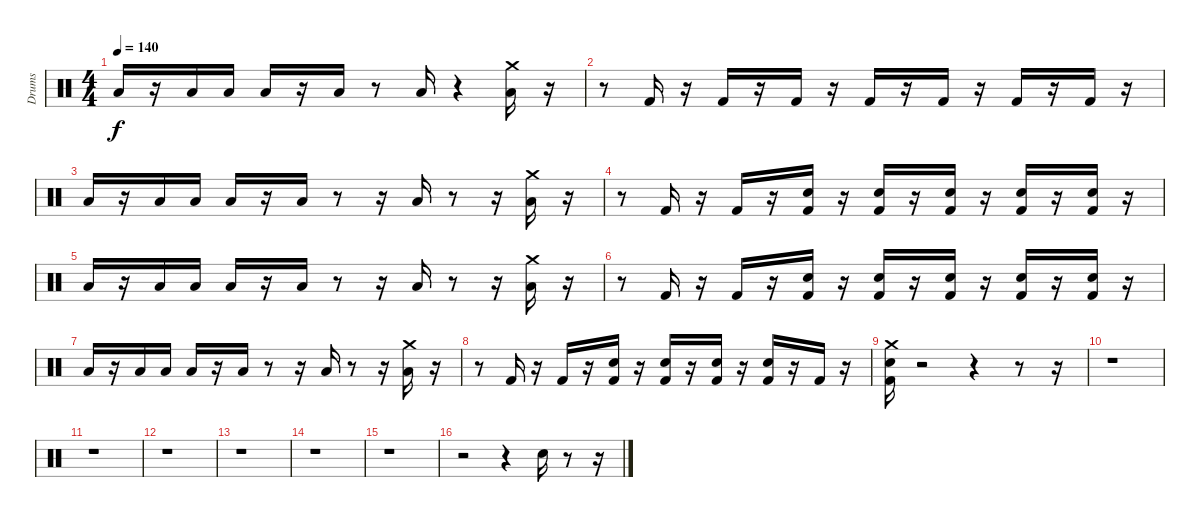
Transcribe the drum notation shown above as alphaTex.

\track ("Drums               " "Drums     ") {instrument percussion}
\staff {score}
\articulation defaults
\ts (4 4)
\tempo 140
\clef neutral
\ks c "Low Floor Tom (hit)".16{dy f}
r.16 "Low Floor Tom (hit)".16 "Low Floor Tom (hit)".16 "Low Floor Tom (hit)".16 r.16 "Low Floor Tom (hit)".16 r.8 "Low Floor Tom (hit)".16 r.4 ("Low Floor Tom (hit)" "Crash medium (hit)").16 r.16 |
r.8 "Kick (hit) 2".16 r.16 "Kick (hit) 2".16 r.16 "Kick (hit) 2".16 r.16 "Kick (hit) 2".16 r.16 "Kick (hit) 2".16 r.16 "Kick (hit) 2".16 r.16 "Kick (hit) 2".16 r.16 |
"Low Floor Tom (hit)".16 r.16 "Low Floor Tom (hit)".16 "Low Floor Tom (hit)".16 "Low Floor Tom (hit)".16 r.16 "Low Floor Tom (hit)".16 r.8 r.16 "Low Floor Tom (hit)".16 r.8 r.16 ("Low Floor Tom (hit)" "Crash medium (hit)").16 r.16 |
r.8 "Kick (hit) 2".16 r.16 "Kick (hit) 2".16 r.16 ("Kick (hit) 2" "Electric Snare (hit)").16 r.16 ("Kick (hit) 2" "Electric Snare (hit)").16 r.16 ("Kick (hit) 2" "Electric Snare (hit)").16 r.16 ("Kick (hit) 2" "Electric Snare (hit)").16 r.16 ("Kick (hit) 2" "Electric Snare (hit)").16 r.16 |
"Low Floor Tom (hit)".16 r.16 "Low Floor Tom (hit)".16 "Low Floor Tom (hit)".16 "Low Floor Tom (hit)".16 r.16 "Low Floor Tom (hit)".16 r.8 r.16 "Low Floor Tom (hit)".16 r.8 r.16 ("Low Floor Tom (hit)" "Crash medium (hit)").16 r.16 |
r.8 "Kick (hit) 2".16 r.16 "Kick (hit) 2".16 r.16 ("Kick (hit) 2" "Electric Snare (hit)").16 r.16 ("Kick (hit) 2" "Electric Snare (hit)").16 r.16 ("Kick (hit) 2" "Electric Snare (hit)").16 r.16 ("Kick (hit) 2" "Electric Snare (hit)").16 r.16 ("Kick (hit) 2" "Electric Snare (hit)").16 r.16 |
"Low Floor Tom (hit)".16 r.16 "Low Floor Tom (hit)".16 "Low Floor Tom (hit)".16 "Low Floor Tom (hit)".16 r.16 "Low Floor Tom (hit)".16 r.8 r.16 "Low Floor Tom (hit)".16 r.8 r.16 ("Low Floor Tom (hit)" "Crash medium (hit)").16 r.16 |
r.8 "Kick (hit) 2".16 r.16 "Kick (hit) 2".16 r.16 ("Kick (hit) 2" "Electric Snare (hit)").16 r.16 ("Kick (hit) 2" "Electric Snare (hit)").16 r.16 ("Kick (hit) 2" "Electric Snare (hit)").16 r.16 ("Kick (hit) 2" "Electric Snare (hit)").16 r.16 "Kick (hit) 2".16 r.16 |
("Kick (hit) 2" "Crash medium (hit)" "Electric Snare (hit)").16 r.2 r.4 r.8 r.16 |
r.1 |
r.1 |
r.1 |
r.1 |
r.1 |
r.1 |
r.2 r.4 "Electric Snare (hit)".16 r.8 r.16
